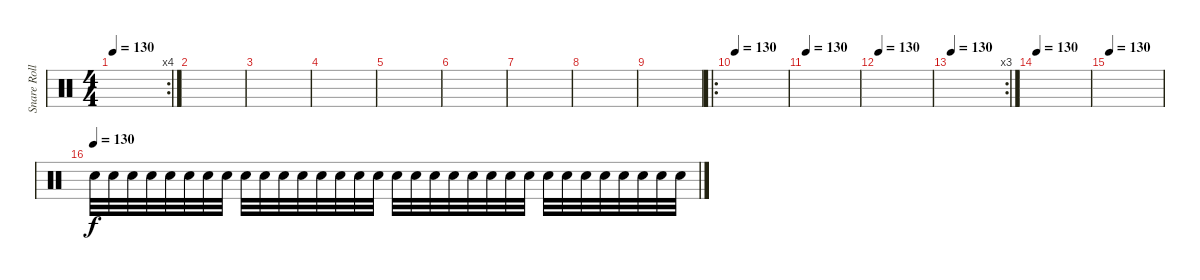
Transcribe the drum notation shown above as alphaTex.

\track ("Snare Roll" "Snare Roll") {instrument percussion}
\staff {score}
\articulation defaults
\rc 4
\ts (4 4)
\tempo 130
\clef neutral
\ks c
|
|
|
|
|
|
|
|
|
\ro
\tempo 130
|
\tempo 130
|
\tempo 130
|
\rc 3
\tempo 130
|
\tempo 130
|
\tempo 130
|
\tempo (130)
"Snare (hit) 2".32 "Snare (hit) 2".32 "Snare (hit) 2".32 "Snare (hit) 2".32 "Snare (hit) 2".32 "Snare (hit) 2".32 "Snare (hit) 2".32 "Snare (hit) 2".32 "Snare (hit) 2".32 "Snare (hit) 2".32 "Snare (hit) 2".32 "Snare (hit) 2".32 "Snare (hit) 2".32 "Snare (hit) 2".32 "Snare (hit) 2".32 "Snare (hit) 2".32 "Snare (hit) 2".32 "Snare (hit) 2".32 "Snare (hit) 2".32 "Snare (hit) 2".32 "Snare (hit) 2".32 "Snare (hit) 2".32 "Snare (hit) 2".32 "Snare (hit) 2".32 "Snare (hit) 2".32 "Snare (hit) 2".32 "Snare (hit) 2".32 "Snare (hit) 2".32 "Snare (hit) 2".32 "Snare (hit) 2".32 "Snare (hit) 2".32 "Snare (hit) 2".32
